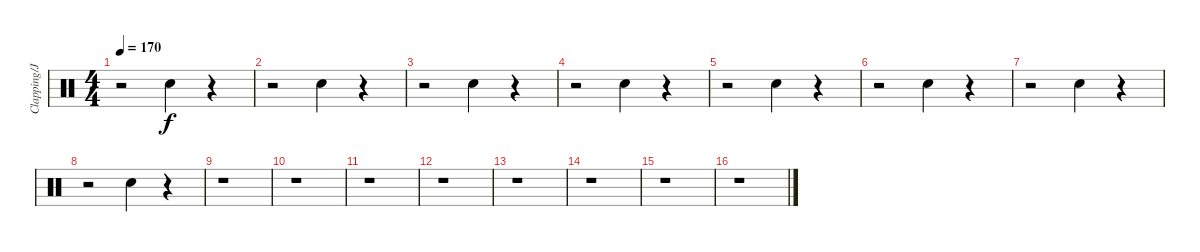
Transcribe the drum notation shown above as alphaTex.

\track ("Clapping/Jay-Z (snare)" "Clapping/J") {instrument percussion}
\staff {score}
\articulation defaults
\ts (4 4)
\tempo 170
\clef neutral
\ks c
r.2{dy f} "Hand Clap (hit)".4 r.4 |
r.2 "Hand Clap (hit)".4 r.4 |
r.2 "Hand Clap (hit)".4 r.4 |
r.2 "Hand Clap (hit)".4 r.4 |
r.2 "Hand Clap (hit)".4 r.4 |
r.2 "Hand Clap (hit)".4 r.4 |
r.2 "Hand Clap (hit)".4 r.4 |
r.2 "Hand Clap (hit)".4 r.4 |
r.1 |
r.1 |
r.1 |
r.1 |
r.1 |
r.1 |
r.1 |
r.1
